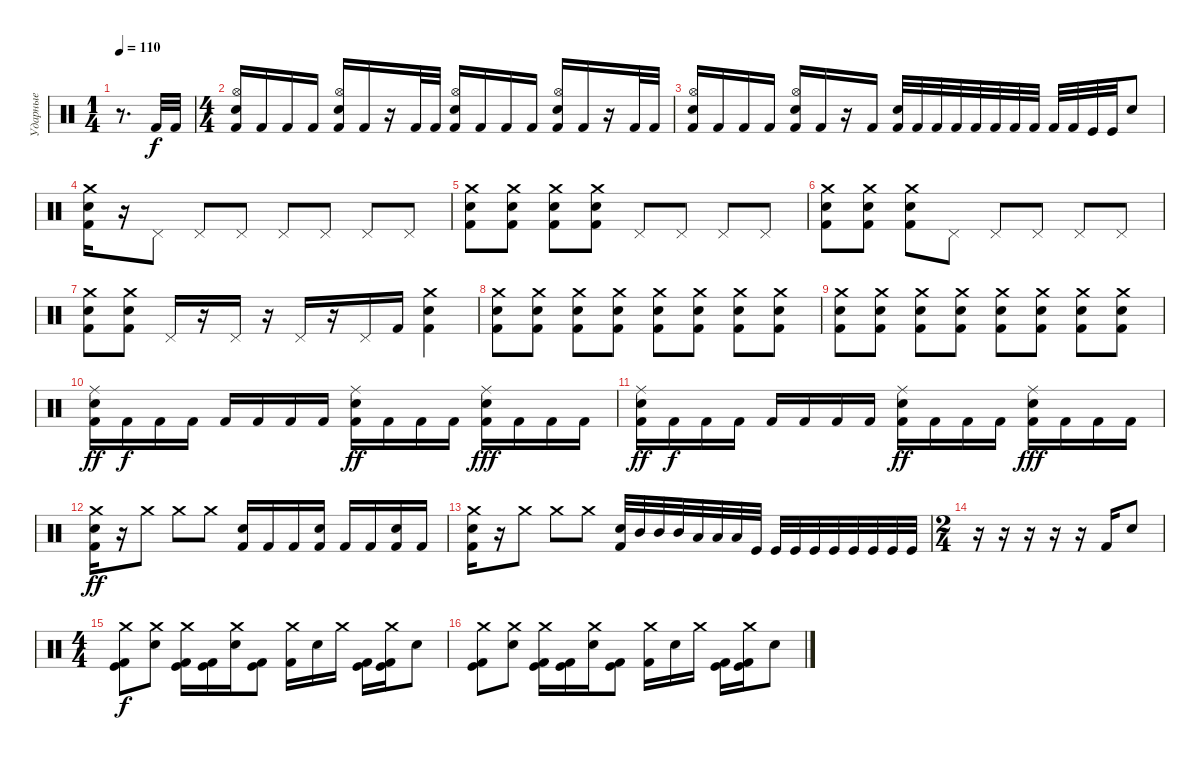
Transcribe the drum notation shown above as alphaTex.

\track ("Ударные" "Ударные") {instrument percussion}
\staff {score}
\articulation defaults
\ts (1 4)
\tempo 110
\clef neutral
\ks c
r.8{d dy f} "Kick (hit) 2".32 "Kick (hit) 2".32 |
\ts (4 4)
("Hi-Hat (open)" "Electric Snare (hit)" "Kick (hit) 2").16 "Kick (hit) 2".16 "Kick (hit) 2".16 "Kick (hit) 2".16 ("Hi-Hat (open)" "Electric Snare (hit)" "Kick (hit) 2").16 "Kick (hit) 2".16 r.16 "Kick (hit) 2".32 "Kick (hit) 2".32 ("Hi-Hat (open)" "Electric Snare (hit)" "Kick (hit) 2").16 "Kick (hit) 2".16 "Kick (hit) 2".16 "Kick (hit) 2".16 ("Hi-Hat (open)" "Electric Snare (hit)" "Kick (hit) 2").16 "Kick (hit) 2".16 r.16 "Kick (hit) 2".32 "Kick (hit) 2".32 |
("Hi-Hat (open)" "Electric Snare (hit)" "Kick (hit) 2").16 "Kick (hit) 2".16 "Kick (hit) 2".16 "Kick (hit) 2".16 ("Hi-Hat (open)" "Electric Snare (hit)" "Kick (hit) 2").16 "Kick (hit) 2".16 r.16 "Kick (hit) 2".16 ("Electric Snare (hit)" "Kick (hit) 2").32 "Kick (hit) 2".32 "Kick (hit) 2".32 "Kick (hit) 2".32 "Kick (hit) 2".32 "Kick (hit) 2".32 "Kick (hit) 2".32 "Kick (hit) 2".32 "Kick (hit) 2".32 "Kick (hit) 2".32 "Kick (hit)".32 "Kick (hit)".32 "Electric Snare (hit)".8 |
("Crash medium (hit)" "Electric Snare (hit)" "Kick (hit) 2").16 r.16 "Pedal Hi-Hat (hit)".8 "Pedal Hi-Hat (hit)".8 "Pedal Hi-Hat (hit)".8 "Pedal Hi-Hat (hit)".8 "Pedal Hi-Hat (hit)".8 "Pedal Hi-Hat (hit)".8 "Pedal Hi-Hat (hit)".8 |
("Crash medium (hit)" "Electric Snare (hit)" "Kick (hit) 2").8 ("Crash medium (hit)" "Electric Snare (hit)" "Kick (hit) 2").8 ("Crash medium (hit)" "Electric Snare (hit)" "Kick (hit) 2").8 ("Crash medium (hit)" "Electric Snare (hit)" "Kick (hit) 2").8 "Pedal Hi-Hat (hit)".8 "Pedal Hi-Hat (hit)".8 "Pedal Hi-Hat (hit)".8 "Pedal Hi-Hat (hit)".8 |
("Crash medium (hit)" "Electric Snare (hit)" "Kick (hit) 2").8 ("Crash medium (hit)" "Electric Snare (hit)" "Kick (hit) 2").8 ("Crash medium (hit)" "Electric Snare (hit)" "Kick (hit) 2").8 "Pedal Hi-Hat (hit)".8 "Pedal Hi-Hat (hit)".8 "Pedal Hi-Hat (hit)".8 "Pedal Hi-Hat (hit)".8 "Pedal Hi-Hat (hit)".8 |
("Crash medium (hit)" "Electric Snare (hit)" "Kick (hit) 2").8 ("Crash medium (hit)" "Electric Snare (hit)" "Kick (hit) 2").8 "Pedal Hi-Hat (hit)".16 r.16 "Pedal Hi-Hat (hit)".16 r.16 "Pedal Hi-Hat (hit)".16 r.16 "Pedal Hi-Hat (hit)".16 "Kick (hit) 2".16 ("Crash medium (hit)" "Electric Snare (hit)" "Kick (hit) 2").4 |
("Crash medium (hit)" "Electric Snare (hit)" "Kick (hit) 2").8 ("Crash medium (hit)" "Electric Snare (hit)" "Kick (hit) 2").8 ("Crash medium (hit)" "Electric Snare (hit)" "Kick (hit) 2").8 ("Crash medium (hit)" "Electric Snare (hit)" "Kick (hit) 2").8 ("Crash medium (hit)" "Electric Snare (hit)" "Kick (hit) 2").8 ("Crash medium (hit)" "Electric Snare (hit)" "Kick (hit) 2").8 ("Crash medium (hit)" "Electric Snare (hit)" "Kick (hit) 2").8 ("Crash medium (hit)" "Electric Snare (hit)" "Kick (hit) 2").8 |
("Crash medium (hit)" "Electric Snare (hit)" "Kick (hit) 2").8 ("Crash medium (hit)" "Electric Snare (hit)" "Kick (hit) 2").8 ("Crash medium (hit)" "Electric Snare (hit)" "Kick (hit) 2").8 ("Crash medium (hit)" "Electric Snare (hit)" "Kick (hit) 2").8 ("Crash medium (hit)" "Electric Snare (hit)" "Kick (hit) 2").8 ("Crash medium (hit)" "Electric Snare (hit)" "Kick (hit) 2").8 ("Crash medium (hit)" "Electric Snare (hit)" "Kick (hit) 2").8 ("Crash medium (hit)" "Electric Snare (hit)" "Kick (hit) 2").8 |
("Ride (middle)" "Electric Snare (hit)" "Kick (hit) 2").16{dy ff} "Kick (hit) 2".16{dy f} "Kick (hit) 2".16 "Kick (hit) 2".16 "Kick (hit) 2".16 "Kick (hit) 2".16 "Kick (hit) 2".16 "Kick (hit) 2".16 ("Ride (middle)" "Electric Snare (hit)" "Kick (hit) 2").16{dy ff} "Kick (hit) 2".16 "Kick (hit) 2".16 "Kick (hit) 2".16 ("Ride (middle)" "Electric Snare (hit)" "Kick (hit) 2").16{dy fff} "Kick (hit) 2".16 "Kick (hit) 2".16 "Kick (hit) 2".16 |
("Ride (middle)" "Electric Snare (hit)" "Kick (hit) 2").16{dy ff} "Kick (hit) 2".16{dy f} "Kick (hit) 2".16 "Kick (hit) 2".16 "Kick (hit) 2".16 "Kick (hit) 2".16 "Kick (hit) 2".16 "Kick (hit) 2".16 ("Ride (middle)" "Electric Snare (hit)" "Kick (hit) 2").16{dy ff} "Kick (hit) 2".16 "Kick (hit) 2".16 "Kick (hit) 2".16 ("Ride (middle)" "Electric Snare (hit)" "Kick (hit) 2").16{dy fff} "Kick (hit) 2".16 "Kick (hit) 2".16 "Kick (hit) 2".16 |
("Crash medium (hit)" "Electric Snare (hit)" "Kick (hit) 2").16{dy ff} r.16 "Crash medium (hit)".8 "Crash medium (hit)".8 "Crash medium (hit)".8 ("Electric Snare (hit)" "Kick (hit) 2").16 "Kick (hit) 2".16 "Kick (hit) 2".16 ("Electric Snare (hit)" "Kick (hit) 2").16 "Kick (hit) 2".16 "Kick (hit) 2".16 ("Electric Snare (hit)" "Kick (hit) 2").16 "Kick (hit) 2".16 |
("Crash medium (hit)" "Electric Snare (hit)" "Kick (hit) 2").16 r.16 "Crash medium (hit)".8 "Crash medium (hit)".8 "Crash medium (hit)".8 ("Electric Snare (hit)" "Kick (hit) 2").32 "Mid Tom (hit)".32 "Mid Tom (hit)".32 "Mid Tom (hit)".32 "Low Tom (hit)".32 "Low Tom (hit)".32 "Low Tom (hit)".32 "Kick (hit)".32 "Kick (hit)".32 "Kick (hit)".32 "Kick (hit)".32 "Kick (hit)".32 "Kick (hit)".32 "Kick (hit)".32 "Kick (hit)".32 "Kick (hit)".32 |
\ts (2 4)
r.16 r.16 r.16 r.16 r.16 "Kick (hit) 2".16 "Electric Snare (hit)".8 |
\ts (4 4)
("Crash medium (hit)" "Kick (hit) 2" "Kick (hit)").8{dy f} ("Crash medium (hit)" "Electric Snare (hit)").8 ("Crash medium (hit)" "Kick (hit) 2" "Kick (hit)").16 ("Kick (hit) 2" "Kick (hit)").16 ("Crash medium (hit)" "Electric Snare (hit)").16 ("Kick (hit) 2" "Kick (hit)").8 ("Crash medium (hit)" "Kick (hit) 2").16 "Electric Snare (hit)".16 "Crash medium (hit)".16 ("Kick (hit) 2" "Kick (hit)").16 ("Crash medium (hit)" "Kick (hit) 2" "Kick (hit)").16 "Electric Snare (hit)".8 |
("Crash medium (hit)" "Kick (hit) 2" "Kick (hit)").8 ("Crash medium (hit)" "Electric Snare (hit)").8 ("Crash medium (hit)" "Kick (hit) 2" "Kick (hit)").16 ("Kick (hit) 2" "Kick (hit)").16 ("Crash medium (hit)" "Electric Snare (hit)").16 ("Kick (hit) 2" "Kick (hit)").8 ("Crash medium (hit)" "Kick (hit) 2").16 "Electric Snare (hit)".16 "Crash medium (hit)".16 ("Kick (hit) 2" "Kick (hit)").16 ("Crash medium (hit)" "Kick (hit) 2" "Kick (hit)").16 "Electric Snare (hit)".8
